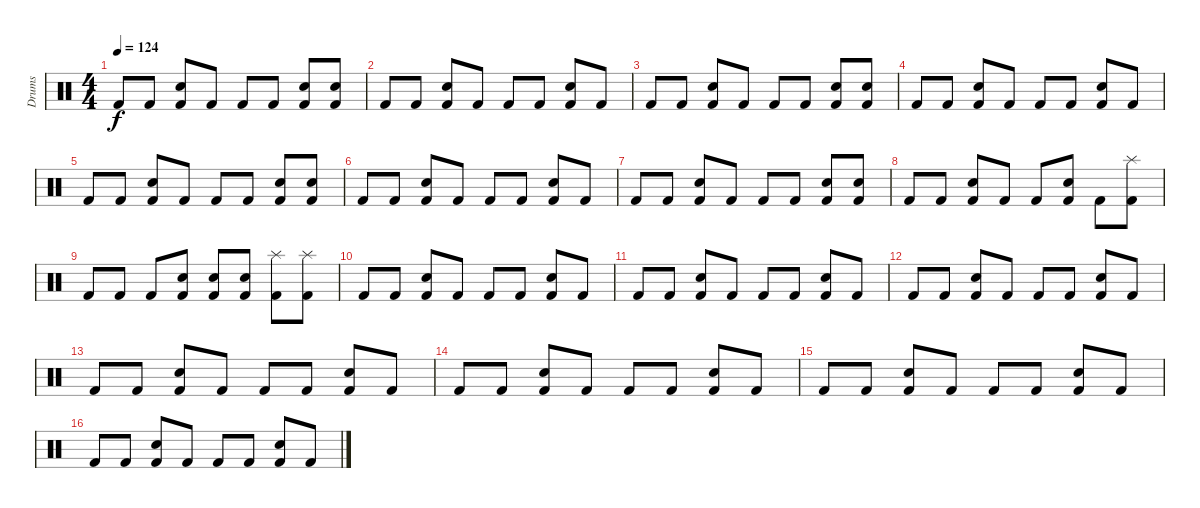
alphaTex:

\track ("Drums" "Drums") {instrument percussion}
\staff {score}
\articulation defaults
\ts (4 4)
\tempo 124
\clef neutral
\ks c "Kick (hit) 2".8{dy f} "Kick (hit) 2".8
("Kick (hit) 2" "Electric Snare (hit)").8 "Kick (hit) 2".8 "Kick (hit) 2".8 "Kick (hit) 2".8 ("Kick (hit) 2" "Electric Snare (hit)").8 ("Kick (hit) 2" "Electric Snare (hit)").8 |
"Kick (hit) 2".8 "Kick (hit) 2".8 ("Kick (hit) 2" "Electric Snare (hit)").8 "Kick (hit) 2".8 "Kick (hit) 2".8 "Kick (hit) 2".8 ("Kick (hit) 2" "Electric Snare (hit)").8 "Kick (hit) 2".8 |
"Kick (hit) 2".8 "Kick (hit) 2".8 ("Kick (hit) 2" "Electric Snare (hit)").8 "Kick (hit) 2".8 "Kick (hit) 2".8 "Kick (hit) 2".8 ("Kick (hit) 2" "Electric Snare (hit)").8 ("Kick (hit) 2" "Electric Snare (hit)").8 |
"Kick (hit) 2".8 "Kick (hit) 2".8 ("Kick (hit) 2" "Electric Snare (hit)").8 "Kick (hit) 2".8 "Kick (hit) 2".8 "Kick (hit) 2".8 ("Kick (hit) 2" "Electric Snare (hit)").8 "Kick (hit) 2".8 |
"Kick (hit) 2".8 "Kick (hit) 2".8 ("Kick (hit) 2" "Electric Snare (hit)").8 "Kick (hit) 2".8 "Kick (hit) 2".8 "Kick (hit) 2".8 ("Kick (hit) 2" "Electric Snare (hit)").8 ("Kick (hit) 2" "Electric Snare (hit)").8 |
"Kick (hit) 2".8 "Kick (hit) 2".8 ("Kick (hit) 2" "Electric Snare (hit)").8 "Kick (hit) 2".8 "Kick (hit) 2".8 "Kick (hit) 2".8 ("Kick (hit) 2" "Electric Snare (hit)").8 "Kick (hit) 2".8 |
"Kick (hit) 2".8 "Kick (hit) 2".8 ("Kick (hit) 2" "Electric Snare (hit)").8 "Kick (hit) 2".8 "Kick (hit) 2".8 "Kick (hit) 2".8 ("Kick (hit) 2" "Electric Snare (hit)").8 ("Kick (hit) 2" "Electric Snare (hit)").8 |
"Kick (hit) 2".8 "Kick (hit) 2".8 ("Kick (hit) 2" "Electric Snare (hit)").8 "Kick (hit) 2".8 "Kick (hit) 2".8 ("Kick (hit) 2" "Electric Snare (hit)").8 "Kick (hit) 2".8 ("Kick (hit) 2" "Splash (hit)").8 |
"Kick (hit) 2".8 "Kick (hit) 2".8 "Kick (hit) 2".8 ("Kick (hit) 2" "Electric Snare (hit)").8 ("Kick (hit) 2" "Electric Snare (hit)").8 ("Kick (hit) 2" "Electric Snare (hit)").8 ("Kick (hit) 2" "Splash (hit)").8 ("Kick (hit) 2" "Splash (hit)").8 |
"Kick (hit) 2".8 "Kick (hit) 2".8 ("Kick (hit) 2" "Electric Snare (hit)").8 "Kick (hit) 2".8 "Kick (hit) 2".8 "Kick (hit) 2".8 ("Kick (hit) 2" "Electric Snare (hit)").8 "Kick (hit) 2".8 |
"Kick (hit) 2".8 "Kick (hit) 2".8 ("Kick (hit) 2" "Electric Snare (hit)").8 "Kick (hit) 2".8 "Kick (hit) 2".8 "Kick (hit) 2".8 ("Kick (hit) 2" "Electric Snare (hit)").8 "Kick (hit) 2".8 |
"Kick (hit) 2".8 "Kick (hit) 2".8 ("Kick (hit) 2" "Electric Snare (hit)").8 "Kick (hit) 2".8 "Kick (hit) 2".8 "Kick (hit) 2".8 ("Kick (hit) 2" "Electric Snare (hit)").8 "Kick (hit) 2".8 |
"Kick (hit) 2".8 "Kick (hit) 2".8 ("Kick (hit) 2" "Electric Snare (hit)").8 "Kick (hit) 2".8 "Kick (hit) 2".8 "Kick (hit) 2".8 ("Kick (hit) 2" "Electric Snare (hit)").8 "Kick (hit) 2".8 |
"Kick (hit) 2".8 "Kick (hit) 2".8 ("Kick (hit) 2" "Electric Snare (hit)").8 "Kick (hit) 2".8 "Kick (hit) 2".8 "Kick (hit) 2".8 ("Kick (hit) 2" "Electric Snare (hit)").8 "Kick (hit) 2".8 |
"Kick (hit) 2".8 "Kick (hit) 2".8 ("Kick (hit) 2" "Electric Snare (hit)").8 "Kick (hit) 2".8 "Kick (hit) 2".8 "Kick (hit) 2".8 ("Kick (hit) 2" "Electric Snare (hit)").8 "Kick (hit) 2".8 |
"Kick (hit) 2".8 "Kick (hit) 2".8 ("Kick (hit) 2" "Electric Snare (hit)").8 "Kick (hit) 2".8 "Kick (hit) 2".8 "Kick (hit) 2".8 ("Kick (hit) 2" "Electric Snare (hit)").8 "Kick (hit) 2".8
